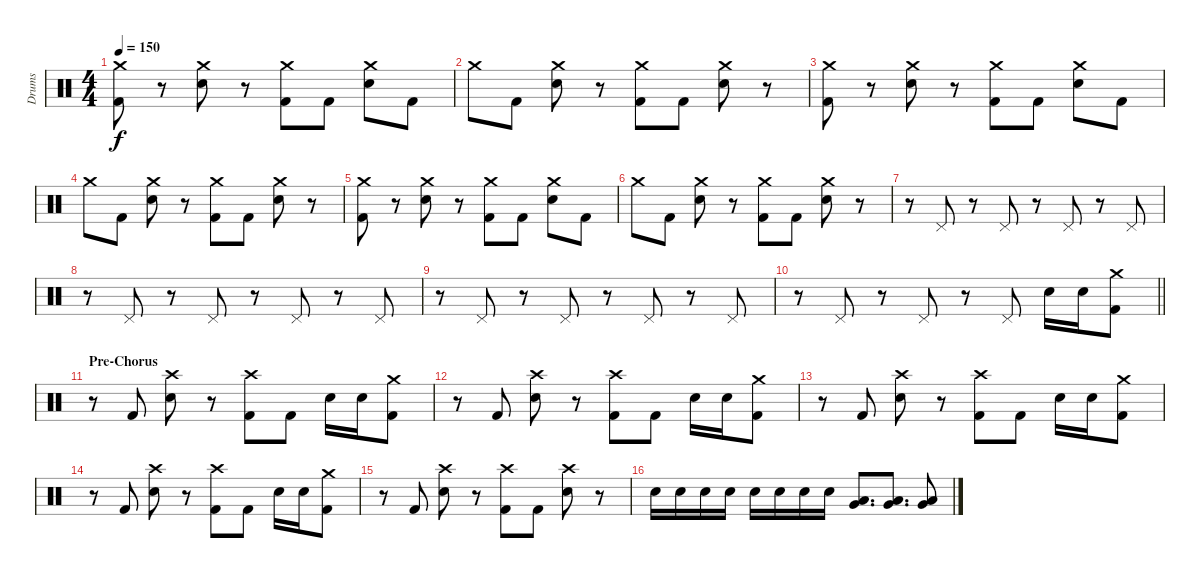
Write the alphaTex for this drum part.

\track ("Drums" "Drums") {instrument percussion}
\staff {score}
\articulation defaults
\ts (4 4)
\tempo 150
\clef neutral
\ks c
("Crash medium (hit)" "Kick (hit) 2").8{dy f} r.8 ("Crash medium (hit)" "Electric Snare (hit)").8 r.8 ("Crash medium (hit)" "Kick (hit) 2").8 "Kick (hit) 2".8 ("Crash medium (hit)" "Electric Snare (hit)").8 "Kick (hit) 2".8 |
"Crash medium (hit)".8 "Kick (hit) 2".8 ("Crash medium (hit)" "Electric Snare (hit)").8 r.8 ("Crash medium (hit)" "Kick (hit) 2").8 "Kick (hit) 2".8 ("Crash medium (hit)" "Electric Snare (hit)").8 r.8 |
("Crash medium (hit)" "Kick (hit) 2").8 r.8 ("Crash medium (hit)" "Electric Snare (hit)").8 r.8 ("Crash medium (hit)" "Kick (hit) 2").8 "Kick (hit) 2".8 ("Crash medium (hit)" "Electric Snare (hit)").8 "Kick (hit) 2".8 |
"Crash medium (hit)".8 "Kick (hit) 2".8 ("Crash medium (hit)" "Electric Snare (hit)").8 r.8 ("Crash medium (hit)" "Kick (hit) 2").8 "Kick (hit) 2".8 ("Crash medium (hit)" "Electric Snare (hit)").8 r.8 |
("Crash medium (hit)" "Kick (hit) 2").8 r.8 ("Crash medium (hit)" "Electric Snare (hit)").8 r.8 ("Crash medium (hit)" "Kick (hit) 2").8 "Kick (hit) 2".8 ("Crash medium (hit)" "Electric Snare (hit)").8 "Kick (hit) 2".8 |
"Crash medium (hit)".8 "Kick (hit) 2".8 ("Crash medium (hit)" "Electric Snare (hit)").8 r.8 ("Crash medium (hit)" "Kick (hit) 2").8 "Kick (hit) 2".8 ("Crash medium (hit)" "Electric Snare (hit)").8 r.8 |
r.8 "Pedal Hi-Hat (hit)".8 r.8 "Pedal Hi-Hat (hit)".8 r.8 "Pedal Hi-Hat (hit)".8 r.8 "Pedal Hi-Hat (hit)".8 |
r.8 "Pedal Hi-Hat (hit)".8 r.8 "Pedal Hi-Hat (hit)".8 r.8 "Pedal Hi-Hat (hit)".8 r.8 "Pedal Hi-Hat (hit)".8 |
r.8 "Pedal Hi-Hat (hit)".8 r.8 "Pedal Hi-Hat (hit)".8 r.8 "Pedal Hi-Hat (hit)".8 r.8 "Pedal Hi-Hat (hit)".8 |
\barLineRight lightlight
r.8 "Pedal Hi-Hat (hit)".8 r.8 "Pedal Hi-Hat (hit)".8 r.8 "Pedal Hi-Hat (hit)".8 "Electric Snare (hit)".16 "Electric Snare (hit)".16 ("Crash medium (hit)" "Kick (hit) 2").8 |
\section ("" "Pre-Chorus")
r.8 "Kick (hit) 2".8 ("Crash high (hit)" "Electric Snare (hit)").8 r.8 ("Crash high (hit)" "Kick (hit) 2").8 "Kick (hit) 2".8 "Electric Snare (hit)".16 "Electric Snare (hit)".16 ("Crash medium (hit)" "Kick (hit) 2").8 |
r.8 "Kick (hit) 2".8 ("Crash high (hit)" "Electric Snare (hit)").8 r.8 ("Crash high (hit)" "Kick (hit) 2").8 "Kick (hit) 2".8 "Electric Snare (hit)".16 "Electric Snare (hit)".16 ("Crash medium (hit)" "Kick (hit) 2").8 |
r.8 "Kick (hit) 2".8 ("Crash high (hit)" "Electric Snare (hit)").8 r.8 ("Crash high (hit)" "Kick (hit) 2").8 "Kick (hit) 2".8 "Electric Snare (hit)".16 "Electric Snare (hit)".16 ("Crash medium (hit)" "Kick (hit) 2").8 |
r.8 "Kick (hit) 2".8 ("Crash high (hit)" "Electric Snare (hit)").8 r.8 ("Crash high (hit)" "Kick (hit) 2").8 "Kick (hit) 2".8 "Electric Snare (hit)".16 "Electric Snare (hit)".16 ("Crash medium (hit)" "Kick (hit) 2").8 |
r.8 "Kick (hit) 2".8 ("Crash high (hit)" "Electric Snare (hit)").8 r.8 ("Crash high (hit)" "Kick (hit) 2").8 "Kick (hit) 2".8 ("Crash high (hit)" "Electric Snare (hit)").8 r.8 |
"Electric Snare (hit)".16 "Electric Snare (hit)".16 "Electric Snare (hit)".16 "Electric Snare (hit)".16 "Electric Snare (hit)".16 "Electric Snare (hit)".16 "Electric Snare (hit)".16 "Electric Snare (hit)".16 ("Very Low Tom (hit)" "Low Floor Tom (hit)").8{d} ("Very Low Tom (hit)" "Low Floor Tom (hit)").8{d} ("Very Low Tom (hit)" "Low Floor Tom (hit)").8
